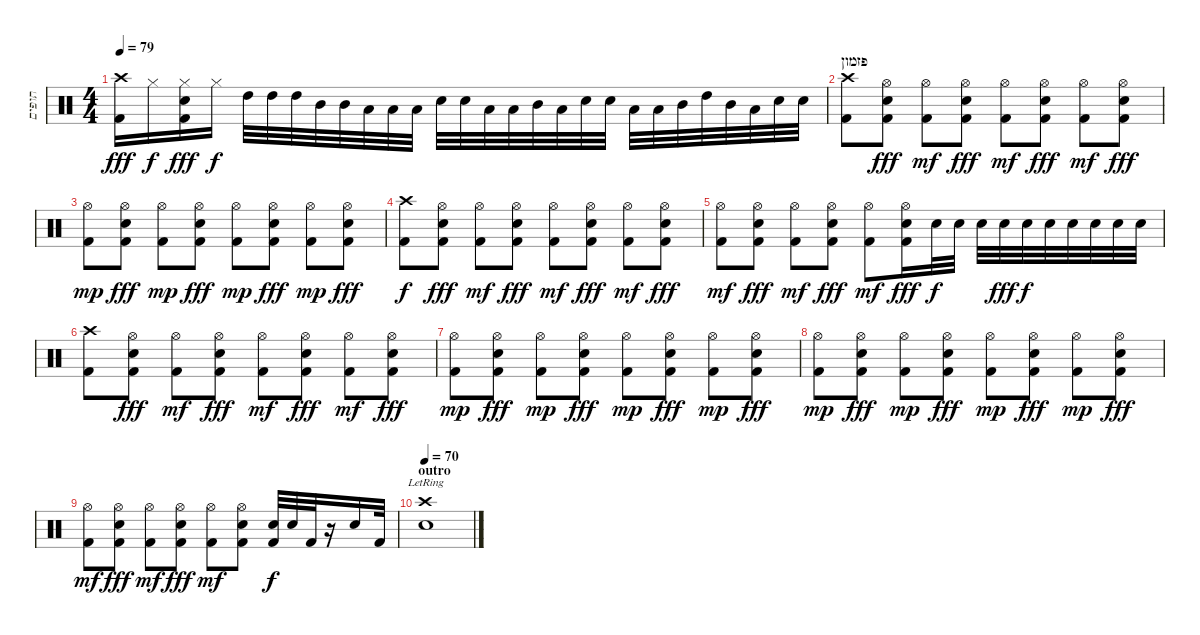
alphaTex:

\track ("תופים" "תופים") {instrument percussion}
\staff {score}
\articulation defaults
\ts (4 4)
\tempo 79
\clef neutral
\ks c
("Crash high (hit)" "Kick (hit) 2").16{dy fff} "Hi-Hat (closed)".16{dy f} ("Hi-Hat (closed)" "Snare (hit) 2" "Kick (hit) 2").16{dy fff} "Hi-Hat (closed)".16{dy f} "High Tom (hit)".32 "High Tom (hit)".32 "High Tom (hit)".32 "Mid Tom (hit)".32 "Mid Tom (hit)".32 "Low Tom (hit)".32 "Low Tom (hit)".32 "Low Tom (hit)".32 "Snare (hit) 2".32 "Snare (hit) 2".32 "Low Tom (hit)".32 "Low Tom (hit)".32 "Mid Tom (hit)".32 "Low Tom (hit)".32 "Snare (hit) 2".32 "Snare (hit) 2".32 "Low Tom (hit)".32 "Low Tom (hit)".32 "Mid Tom (hit)".32 "High Tom (hit)".32 "Mid Tom (hit)".32 "Low Tom (hit)".32 "Snare (hit) 2".32 "Snare (hit) 2".32 |
\section ("" "פזמון")
("Crash high (hit)" "Kick (hit) 2").8 ("Hi-Hat (open)" "Snare (hit) 2" "Kick (hit) 2").8{dy fff} ("Hi-Hat (open)" "Kick (hit) 2").8{dy mf} ("Hi-Hat (open)" "Snare (hit) 2" "Kick (hit) 2").8{dy fff} ("Hi-Hat (open)" "Kick (hit) 2").8{dy mf} ("Hi-Hat (open)" "Snare (hit) 2" "Kick (hit) 2").8{dy fff} ("Hi-Hat (open)" "Kick (hit) 2").8{dy mf} ("Hi-Hat (open)" "Snare (hit) 2" "Kick (hit) 2").8{dy fff} |
("Hi-Hat (open)" "Kick (hit) 2").8{dy mp} ("Hi-Hat (open)" "Snare (hit) 2" "Kick (hit) 2").8{dy fff} ("Hi-Hat (open)" "Kick (hit) 2").8{dy mp} ("Hi-Hat (open)" "Snare (hit) 2" "Kick (hit) 2").8{dy fff} ("Hi-Hat (open)" "Kick (hit) 2").8{dy mp} ("Hi-Hat (open)" "Snare (hit) 2" "Kick (hit) 2").8{dy fff} ("Hi-Hat (open)" "Kick (hit) 2").8{dy mp} ("Hi-Hat (open)" "Snare (hit) 2" "Kick (hit) 2").8{dy fff} |
("Crash high (hit)" "Kick (hit) 2").8{dy f} ("Hi-Hat (open)" "Snare (hit) 2" "Kick (hit) 2").8{dy fff} ("Hi-Hat (open)" "Kick (hit) 2").8{dy mf} ("Hi-Hat (open)" "Snare (hit) 2" "Kick (hit) 2").8{dy fff} ("Hi-Hat (open)" "Kick (hit) 2").8{dy mf} ("Hi-Hat (open)" "Snare (hit) 2" "Kick (hit) 2").8{dy fff} ("Hi-Hat (open)" "Kick (hit) 2").8{dy mf} ("Hi-Hat (open)" "Snare (hit) 2" "Kick (hit) 2").8{dy fff} |
("Hi-Hat (open)" "Kick (hit) 2").8{dy mf} ("Hi-Hat (open)" "Snare (hit) 2" "Kick (hit) 2").8{dy fff} ("Hi-Hat (open)" "Kick (hit) 2").8{dy mf} ("Hi-Hat (open)" "Snare (hit) 2" "Kick (hit) 2").8{dy fff} ("Hi-Hat (open)" "Kick (hit) 2").8{dy mf} ("Hi-Hat (open)" "Snare (hit) 2" "Kick (hit) 2").16{dy fff} "Snare (hit) 2".32{dy f} "Snare (hit) 2".32 "Snare (hit) 2".32 "Snare (hit) 2".32{dy fff} "Snare (hit) 2".32{dy f} "Snare (hit) 2".32 "Snare (hit) 2".32 "Snare (hit) 2".32 "Snare (hit) 2".32 "Snare (hit) 2".32 |
("Crash high (hit)" "Kick (hit) 2").8 ("Hi-Hat (open)" "Snare (hit) 2" "Kick (hit) 2").8{dy fff} ("Hi-Hat (open)" "Kick (hit) 2").8{dy mf} ("Hi-Hat (open)" "Snare (hit) 2" "Kick (hit) 2").8{dy fff} ("Hi-Hat (open)" "Kick (hit) 2").8{dy mf} ("Hi-Hat (open)" "Snare (hit) 2" "Kick (hit) 2").8{dy fff} ("Hi-Hat (open)" "Kick (hit) 2").8{dy mf} ("Hi-Hat (open)" "Snare (hit) 2" "Kick (hit) 2").8{dy fff} |
("Hi-Hat (open)" "Kick (hit) 2").8{dy mp} ("Hi-Hat (open)" "Snare (hit) 2" "Kick (hit) 2").8{dy fff} ("Hi-Hat (open)" "Kick (hit) 2").8{dy mp} ("Hi-Hat (open)" "Snare (hit) 2" "Kick (hit) 2").8{dy fff} ("Hi-Hat (open)" "Kick (hit) 2").8{dy mp} ("Hi-Hat (open)" "Snare (hit) 2" "Kick (hit) 2").8{dy fff} ("Hi-Hat (open)" "Kick (hit) 2").8{dy mp} ("Hi-Hat (open)" "Snare (hit) 2" "Kick (hit) 2").8{dy fff} |
("Hi-Hat (open)" "Kick (hit) 2").8{dy mp} ("Hi-Hat (open)" "Snare (hit) 2" "Kick (hit) 2").8{dy fff} ("Hi-Hat (open)" "Kick (hit) 2").8{dy mp} ("Hi-Hat (open)" "Snare (hit) 2" "Kick (hit) 2").8{dy fff} ("Hi-Hat (open)" "Kick (hit) 2").8{dy mp} ("Hi-Hat (open)" "Snare (hit) 2" "Kick (hit) 2").8{dy fff} ("Hi-Hat (open)" "Kick (hit) 2").8{dy mp} ("Hi-Hat (open)" "Snare (hit) 2" "Kick (hit) 2").8{dy fff} |
("Hi-Hat (open)" "Kick (hit) 2").8{dy mf} ("Hi-Hat (open)" "Snare (hit) 2" "Kick (hit) 2").8{dy fff} ("Hi-Hat (open)" "Kick (hit) 2").8{dy mf} ("Hi-Hat (open)" "Snare (hit) 2" "Kick (hit) 2").8{dy fff} ("Hi-Hat (open)" "Kick (hit) 2").8{dy mf} ("Hi-Hat (open)" "Snare (hit) 2" "Kick (hit) 2").8 ("Snare (hit) 2" "Kick (hit) 2").32{dy f} "Snare (hit) 2".32 "Kick (hit) 2".32 r.16 "Snare (hit) 2".16 "Kick (hit) 2".32 |
\section ("" "outro")
\tempo 70
("Snare (hit) 2"{lr} "Crash high (hit)"{lr}).1
